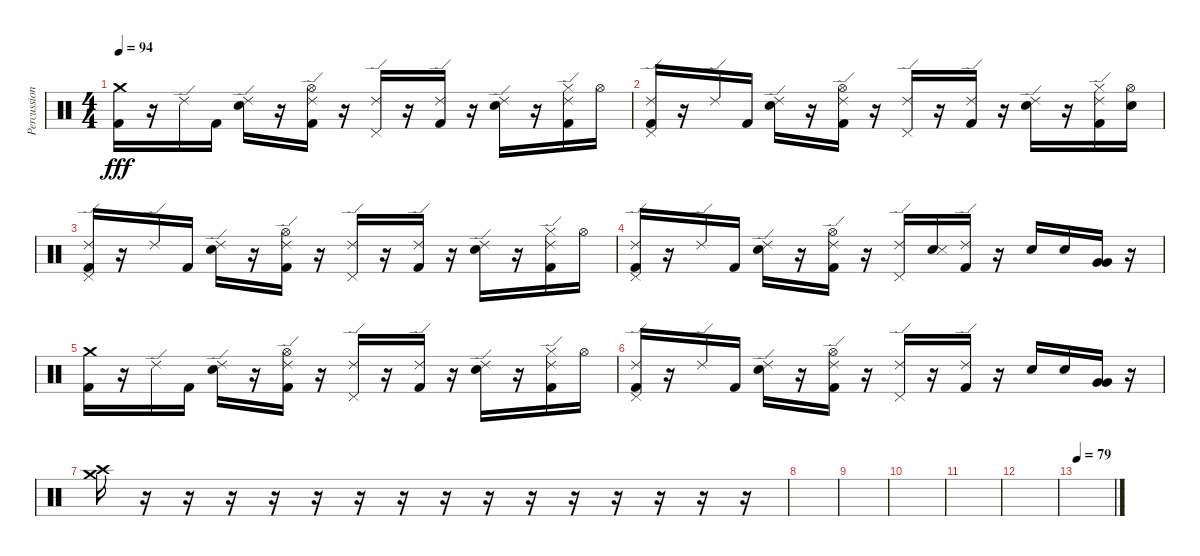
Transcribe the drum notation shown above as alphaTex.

\track ("Percussions" "Percussion") {instrument percussion}
\staff {score}
\articulation defaults
\ts (4 4)
\tempo 94
\clef neutral
\ks c
("Crash medium (hit)" "Kick (hit) 2").16{dy fff} r.16 "Ride (edge) 2".16 "Kick (hit) 2".16 ("Ride (edge) 2" "Electric Snare (hit)").16 r.16 ("Ride (edge) 2" "Hi-Hat (open)" "Kick (hit) 2").16 r.16 ("Ride (edge) 2" "Pedal Hi-Hat (hit)").16 r.16 ("Ride (edge) 2" "Kick (hit) 2").16 r.16 ("Ride (edge) 2" "Electric Snare (hit)").16 r.16 ("Ride (edge) 2" "Hi-Hat (closed)" "Kick (hit) 2").16 "Hi-Hat (open)".16 |
("Ride (edge) 2" "Pedal Hi-Hat (hit)" "Kick (hit) 2").16 r.16 "Ride (edge) 2".16 "Kick (hit) 2".16 ("Ride (edge) 2" "Electric Snare (hit)").16 r.16 ("Ride (edge) 2" "Hi-Hat (open)" "Kick (hit) 2").16 r.16 ("Ride (edge) 2" "Pedal Hi-Hat (hit)").16 r.16 ("Ride (edge) 2" "Kick (hit) 2").16 r.16 ("Ride (edge) 2" "Electric Snare (hit)").16 r.16 ("Ride (edge) 2" "Hi-Hat (closed)" "Kick (hit) 2").16 ("Hi-Hat (open)" "Electric Snare (hit)").16 |
("Ride (edge) 2" "Pedal Hi-Hat (hit)" "Kick (hit) 2").16 r.16 "Ride (edge) 2".16 "Kick (hit) 2".16 ("Ride (edge) 2" "Electric Snare (hit)").16 r.16 ("Ride (edge) 2" "Hi-Hat (open)" "Kick (hit) 2").16 r.16 ("Ride (edge) 2" "Pedal Hi-Hat (hit)").16 r.16 ("Ride (edge) 2" "Kick (hit) 2").16 r.16 ("Ride (edge) 2" "Electric Snare (hit)").16 r.16 ("Ride (edge) 2" "Hi-Hat (closed)" "Kick (hit) 2").16 "Hi-Hat (open)".16 |
("Ride (edge) 2" "Pedal Hi-Hat (hit)" "Kick (hit) 2").16 r.16 "Ride (edge) 2".16 "Kick (hit) 2".16 ("Ride (edge) 2" "Electric Snare (hit)").16 r.16 ("Ride (edge) 2" "Hi-Hat (open)" "Kick (hit) 2").16 r.16 ("Ride (edge) 2" "Pedal Hi-Hat (hit)").16 ("Electric Snare (hit)" "Snare (side stick) 3").16 ("Ride (edge) 2" "Kick (hit) 2").16 r.16 "Electric Snare (hit)".16 "Electric Snare (hit)".16 ("Very Low Tom (hit)" "Very Low Tom (hit)").16 r.16 |
("Crash medium (hit)" "Kick (hit) 2").16 r.16 "Ride (edge) 2".16 "Kick (hit) 2".16 ("Ride (edge) 2" "Electric Snare (hit)").16 r.16 ("Ride (edge) 2" "Hi-Hat (open)" "Kick (hit) 2").16 r.16 ("Ride (edge) 2" "Pedal Hi-Hat (hit)").16 r.16 ("Ride (edge) 2" "Kick (hit) 2").16 r.16 ("Ride (edge) 2" "Electric Snare (hit)").16 r.16 ("Ride (edge) 2" "Hi-Hat (closed)" "Kick (hit) 2").16 "Hi-Hat (open)".16 |
("Ride (edge) 2" "Pedal Hi-Hat (hit)" "Kick (hit) 2").16 r.16 "Ride (edge) 2".16 "Kick (hit) 2".16 ("Ride (edge) 2" "Electric Snare (hit)").16 r.16 ("Ride (edge) 2" "Hi-Hat (open)" "Kick (hit) 2").16 r.16 ("Ride (edge) 2" "Pedal Hi-Hat (hit)").16 r.16 ("Ride (edge) 2" "Kick (hit) 2").16 r.16 "Electric Snare (hit)".16 "Electric Snare (hit)".16 ("Very Low Tom (hit)" "Very Low Tom (hit)").16 r.16 |
("Crash high (hit)" "Crash medium (hit)").16 r.16 r.16 r.16 r.16 r.16 r.16 r.16 r.16 r.16 r.16 r.16 r.16 r.16 r.16 r.16 |
|
|
|
|
|
\tempo 79
